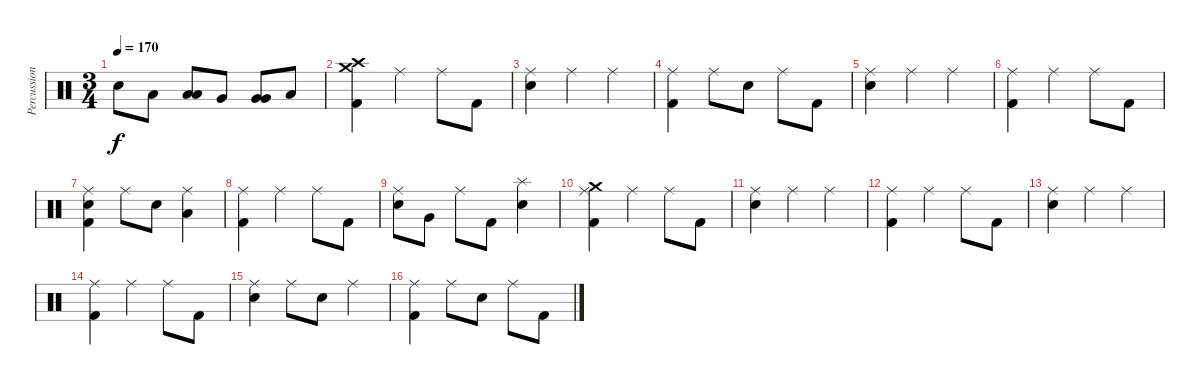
\track ("Percussion" "Percussion") {instrument percussion}
\staff {score}
\articulation defaults
\ts (3 4)
\tempo 170
\clef neutral
\ks c "Electric Snare (hit)".8{dy f} "Low Tom (hit)".8
("Low Tom (hit)" "Low Tom (hit)").8{bd 240} "Very Low Tom (hit)".8 ("Very Low Tom (hit)" "Very Low Tom (hit)").8{bd 240} "Low Floor Tom (hit)".8 |
("Crash medium (hit)" "Crash high (hit)" "Kick (hit) 2").4 "Ride (middle)".4 "Ride (middle)".8 "Kick (hit) 2".8 |
("Ride (middle)" "Electric Snare (hit)").4 "Ride (middle)".4 "Ride (middle)".4 |
("Ride (middle)" "Kick (hit) 2").4 "Ride (middle)".8 "Electric Snare (hit)".8 "Ride (middle)".8 "Kick (hit) 2".8 |
("Ride (middle)" "Electric Snare (hit)").4 "Ride (middle)".4 "Ride (middle)".4 |
("Ride (middle)" "Kick (hit) 2").4 "Ride (middle)".4 "Ride (middle)".8 "Kick (hit) 2".8 |
("Ride (middle)" "Electric Snare (hit)" "Kick (hit) 2").4 "Ride (middle)".8 "Electric Snare (hit)".8 ("Ride (middle)" "Low Tom (hit)").4 |
("Ride (middle)" "Kick (hit) 2").4 "Ride (middle)".4 "Ride (middle)".8 "Kick (hit) 2".8 |
("Ride (middle)" "Electric Snare (hit)").8 "Very Low Tom (hit)".8 "Ride (middle)".8 "Kick (hit) 2".8 ("Splash (hit)" "Electric Snare (hit)").4 |
("Ride (middle)" "Crash medium (hit)" "Kick (hit) 2").4 "Ride (middle)".4 "Ride (middle)".8 "Kick (hit) 2".8 |
("Ride (middle)" "Electric Snare (hit)").4 "Ride (middle)".4 "Ride (middle)".4 |
("Ride (middle)" "Kick (hit) 2").4 "Ride (middle)".4 "Ride (middle)".8 "Kick (hit) 2".8 |
("Ride (middle)" "Electric Snare (hit)").4 "Ride (middle)".4 "Ride (middle)".4 |
("Ride (middle)" "Kick (hit) 2").4 "Ride (middle)".4 "Ride (middle)".8 "Kick (hit) 2".8 |
("Ride (middle)" "Electric Snare (hit)").4 "Ride (middle)".8 "Electric Snare (hit)".8 "Ride (middle)".4 |
("Ride (middle)" "Kick (hit) 2").4 "Ride (middle)".8 "Electric Snare (hit)".8 "Ride (middle)".8 "Kick (hit) 2".8
